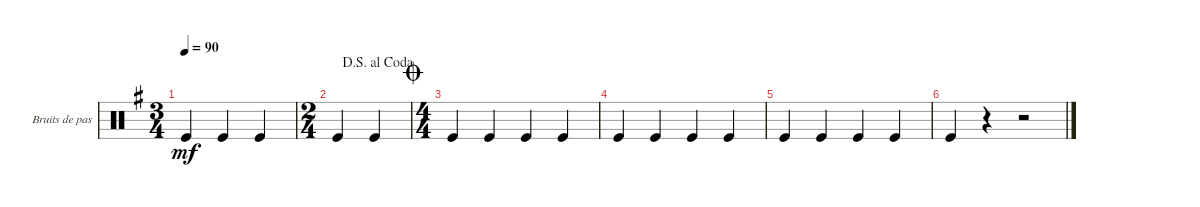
\defaultSystemsLayout 4
\singleTrackTrackNamePolicy allsystems
\multiTrackTrackNamePolicy allsystems
\firstSystemTrackNameMode fullname
\firstSystemTrackNameOrientation horizontal
\otherSystemsTrackNameOrientation horizontal
\chordDiagramsInScore
\track ("Bruits de pas" "Pas") {instrument percussion}
\staff {score}
\articulation defaults
\ts (3 4)
\tempo 90
\clef neutral
\ks g "Kick (hit)".4{dy mf} "Kick (hit)".4 "Kick (hit)".4
|
\ts (2 4)
\jump dalsegnoalcoda "Kick (hit)".4 "Kick (hit)".4
|
\ts (4 4)
\jump coda "Kick (hit)".4 "Kick (hit)".4 "Kick (hit)".4 "Kick (hit)".4
|
"Kick (hit)".4 "Kick (hit)".4 "Kick (hit)".4 "Kick (hit)".4 |
"Kick (hit)".4 "Kick (hit)".4 "Kick (hit)".4 "Kick (hit)".4 |
"Kick (hit)".4 r.4 r.2
